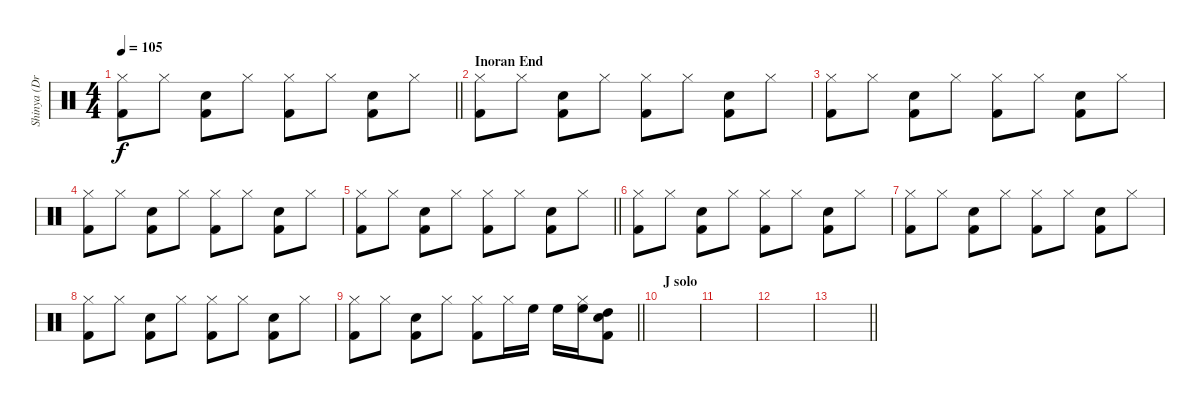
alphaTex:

\track ("Shinya (Drums)" "Shinya (Dr") {instrument percussion}
\staff {score}
\articulation defaults
\ts (4 4)
\tempo 105
\clef neutral
\barLineRight lightlight
\ks c
("Hi-Hat (closed)" "Kick (hit) 2").8{dy f} "Hi-Hat (closed)".8 ("Snare (hit) 2" "Kick (hit) 2").8 "Hi-Hat (closed)".8 ("Hi-Hat (closed)" "Kick (hit) 2").8 "Hi-Hat (closed)".8 ("Snare (hit) 2" "Kick (hit) 2").8 "Hi-Hat (closed)".8 |
\section ("" "Inoran End")
("Hi-Hat (closed)" "Kick (hit) 2").8 "Hi-Hat (closed)".8 ("Snare (hit) 2" "Kick (hit) 2").8 "Hi-Hat (closed)".8 ("Hi-Hat (closed)" "Kick (hit) 2").8 "Hi-Hat (closed)".8 ("Snare (hit) 2" "Kick (hit) 2").8 "Hi-Hat (closed)".8 |
("Hi-Hat (closed)" "Kick (hit) 2").8 "Hi-Hat (closed)".8 ("Snare (hit) 2" "Kick (hit) 2").8 "Hi-Hat (closed)".8 ("Hi-Hat (closed)" "Kick (hit) 2").8 "Hi-Hat (closed)".8 ("Snare (hit) 2" "Kick (hit) 2").8 "Hi-Hat (closed)".8 |
("Hi-Hat (closed)" "Kick (hit) 2").8 "Hi-Hat (closed)".8 ("Snare (hit) 2" "Kick (hit) 2").8 "Hi-Hat (closed)".8 ("Hi-Hat (closed)" "Kick (hit) 2").8 "Hi-Hat (closed)".8 ("Snare (hit) 2" "Kick (hit) 2").8 "Hi-Hat (closed)".8 |
\barLineRight lightlight
("Hi-Hat (closed)" "Kick (hit) 2").8 "Hi-Hat (closed)".8 ("Snare (hit) 2" "Kick (hit) 2").8 "Hi-Hat (closed)".8 ("Hi-Hat (closed)" "Kick (hit) 2").8 "Hi-Hat (closed)".8 ("Snare (hit) 2" "Kick (hit) 2").8 "Hi-Hat (closed)".8 |
("Hi-Hat (closed)" "Kick (hit) 2").8 "Hi-Hat (closed)".8 ("Snare (hit) 2" "Kick (hit) 2").8 "Hi-Hat (closed)".8 ("Hi-Hat (closed)" "Kick (hit) 2").8 "Hi-Hat (closed)".8 ("Snare (hit) 2" "Kick (hit) 2").8 "Hi-Hat (closed)".8 |
("Hi-Hat (closed)" "Kick (hit) 2").8 "Hi-Hat (closed)".8 ("Snare (hit) 2" "Kick (hit) 2").8 "Hi-Hat (closed)".8 ("Hi-Hat (closed)" "Kick (hit) 2").8 "Hi-Hat (closed)".8 ("Snare (hit) 2" "Kick (hit) 2").8 "Hi-Hat (closed)".8 |
("Hi-Hat (closed)" "Kick (hit) 2").8 "Hi-Hat (closed)".8 ("Snare (hit) 2" "Kick (hit) 2").8 "Hi-Hat (closed)".8 ("Hi-Hat (closed)" "Kick (hit) 2").8 "Hi-Hat (closed)".8 ("Snare (hit) 2" "Kick (hit) 2").8 "Hi-Hat (closed)".8 |
\barLineRight lightlight
("Hi-Hat (closed)" "Kick (hit) 2").8 "Hi-Hat (closed)".8 ("Snare (hit) 2" "Kick (hit) 2").8 "Hi-Hat (closed)".8 ("Hi-Hat (closed)" "Kick (hit) 2").8 "Hi-Hat (closed)".16 "High Floor Tom (hit)".16 "High Floor Tom (hit)".16 ("High Floor Tom (hit)" "Hi-Hat (closed)").16 ("High Tom (hit)" "Snare (hit) 2" "Kick (hit) 2").8 |
\section ("" "J solo")
|
|
|
\barLineRight lightlight
